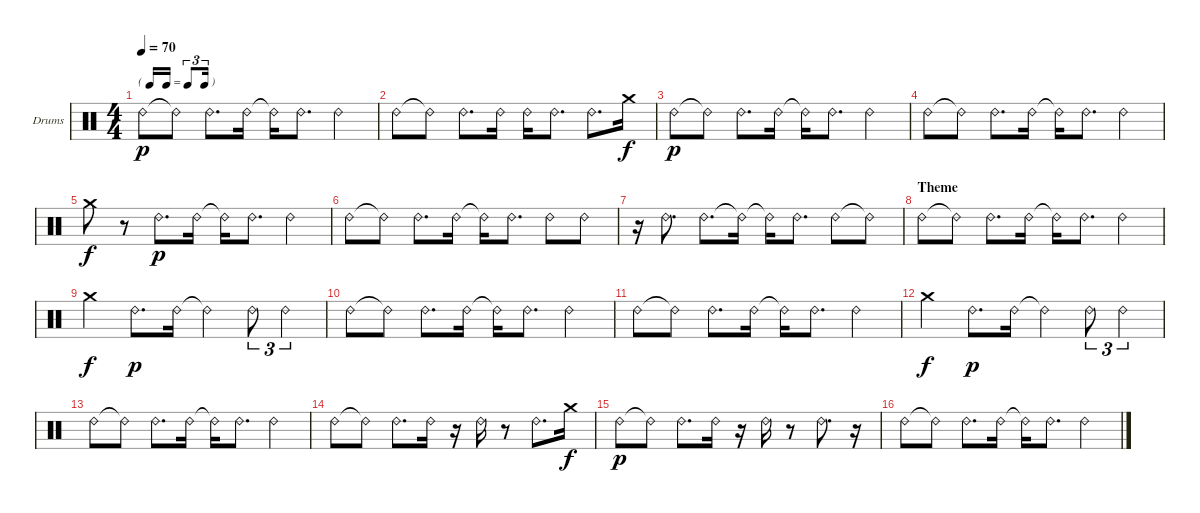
\bracketExtendMode groupsimilarinstruments
\firstSystemTrackNameOrientation horizontal
\otherSystemsTrackNameOrientation horizontal
\track ("OH" "Drums") {instrument percussion}
\staff {score}
\articulation defaults
\ts (4 4)
\tf triplet16th
\tempo 70
\clef neutral
\scale
0.333333
\ks aminor "Ride (bell) 2".8{dy p} "Ride (bell) 2"{t}.8 "Ride (bell) 2".8{d} "Ride (bell) 2".16 "Ride (bell) 2"{t}.16 "Ride (bell) 2".8{d} "Ride (bell) 2".4
|
\scale
0.333333 "Ride (bell) 2".8 "Ride (bell) 2"{t}.8 "Ride (bell) 2".8{d} "Ride (bell) 2".16 "Ride (bell) 2".16 "Ride (bell) 2".8{d} "Ride (bell) 2".8{d} "Crash medium (hit)".16{dy f} |
\scale
0.333333 "Ride (bell) 2".8{dy p} "Ride (bell) 2"{t}.8 "Ride (bell) 2".8{d} "Ride (bell) 2".16 "Ride (bell) 2"{t}.16 "Ride (bell) 2".8{d} "Ride (bell) 2".4 |
\scale
0.333333 "Ride (bell) 2".8 "Ride (bell) 2"{t}.8 "Ride (bell) 2".8{d} "Ride (bell) 2".16 "Ride (bell) 2"{t}.16 "Ride (bell) 2".8{d} "Ride (bell) 2".4 |
\scale
0.333333 "Crash medium (hit)".8{dy f} r.8 "Ride (bell) 2".8{d dy p} "Ride (bell) 2".16 "Ride (bell) 2"{t}.16 "Ride (bell) 2".8{d} "Ride (bell) 2".4 |
\scale
0.333333 "Ride (bell) 2".8 "Ride (bell) 2"{t}.8 "Ride (bell) 2".8{d} "Ride (bell) 2".16 "Ride (bell) 2"{t}.16 "Ride (bell) 2".8{d} "Ride (bell) 2".8 "Ride (bell) 2".8 |
\scale
0.333333 r.16 "Ride (bell) 2".8{d} "Ride (bell) 2".8{d} "Ride (bell) 2"{t}.16 "Ride (bell) 2"{t}.16 "Ride (bell) 2".8{d} "Ride (bell) 2".8 "Ride (bell) 2"{t}.8 |
\section ("" "Theme")
\scale
0.333333 "Ride (bell) 2".8 "Ride (bell) 2"{t}.8 "Ride (bell) 2".8{d} "Ride (bell) 2".16 "Ride (bell) 2"{t}.16 "Ride (bell) 2".8{d} "Ride (bell) 2".4 |
\scale
0.333333 "Crash medium (hit)".4{dy f} "Ride (bell) 2".8{d dy p} "Ride (bell) 2".16 "Ride (bell) 2"{t}.4 "Ride (bell) 2".8{tu (3 2)} "Ride (bell) 2".4{tu (3 2)} |
\scale
0.333333 "Ride (bell) 2".8 "Ride (bell) 2"{t}.8 "Ride (bell) 2".8{d} "Ride (bell) 2".16 "Ride (bell) 2"{t}.16 "Ride (bell) 2".8{d} "Ride (bell) 2".4 |
\scale
0.333333 "Ride (bell) 2".8 "Ride (bell) 2"{t}.8 "Ride (bell) 2".8{d} "Ride (bell) 2".16 "Ride (bell) 2"{t}.16 "Ride (bell) 2".8{d} "Ride (bell) 2".4 |
\scale
0.333333 "Crash medium (hit)".4{dy f} "Ride (bell) 2".8{d dy p} "Ride (bell) 2".16 "Ride (bell) 2"{t}.4 "Ride (bell) 2".8{tu (3 2)} "Ride (bell) 2".4{tu (3 2)} |
\scale
0.333333 "Ride (bell) 2".8 "Ride (bell) 2"{t}.8 "Ride (bell) 2".8{d} "Ride (bell) 2".16 "Ride (bell) 2"{t}.16 "Ride (bell) 2".8{d} "Ride (bell) 2".4 |
"Ride (bell) 2".8 "Ride (bell) 2"{t}.8 "Ride (bell) 2".8{d} "Ride (bell) 2".16 r.16 "Ride (bell) 2".16 r.8 "Ride (bell) 2".8{d} "Crash medium (hit)".16{dy f} |
"Ride (bell) 2".8{dy p} "Ride (bell) 2"{t}.8 "Ride (bell) 2".8{d} "Ride (bell) 2".16 r.16 "Ride (bell) 2".16 r.8 "Ride (bell) 2".8{d} r.16 |
"Ride (bell) 2".8 "Ride (bell) 2"{t}.8 "Ride (bell) 2".8{d} "Ride (bell) 2".16 "Ride (bell) 2"{t}.16 "Ride (bell) 2".8{d} "Ride (bell) 2".4
